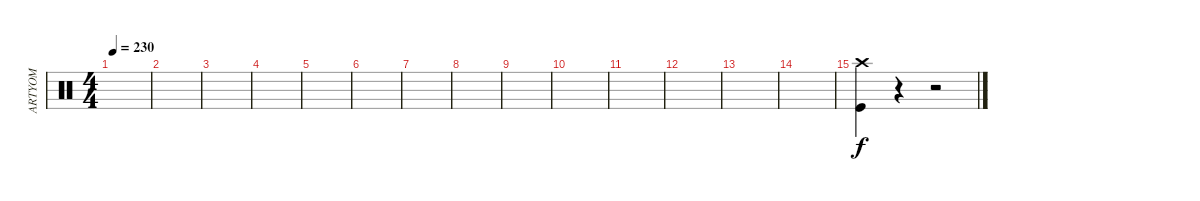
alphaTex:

\track ("ARTYOM" "ARTYOM") {instrument percussion}
\staff {score}
\articulation defaults
\ts (4 4)
\tempo 230
\clef neutral
\ks c
|
|
|
|
|
|
|
|
|
|
|
|
|
|
("Crash high (hit)" "Kick (hit)").4 r.4 r.2
